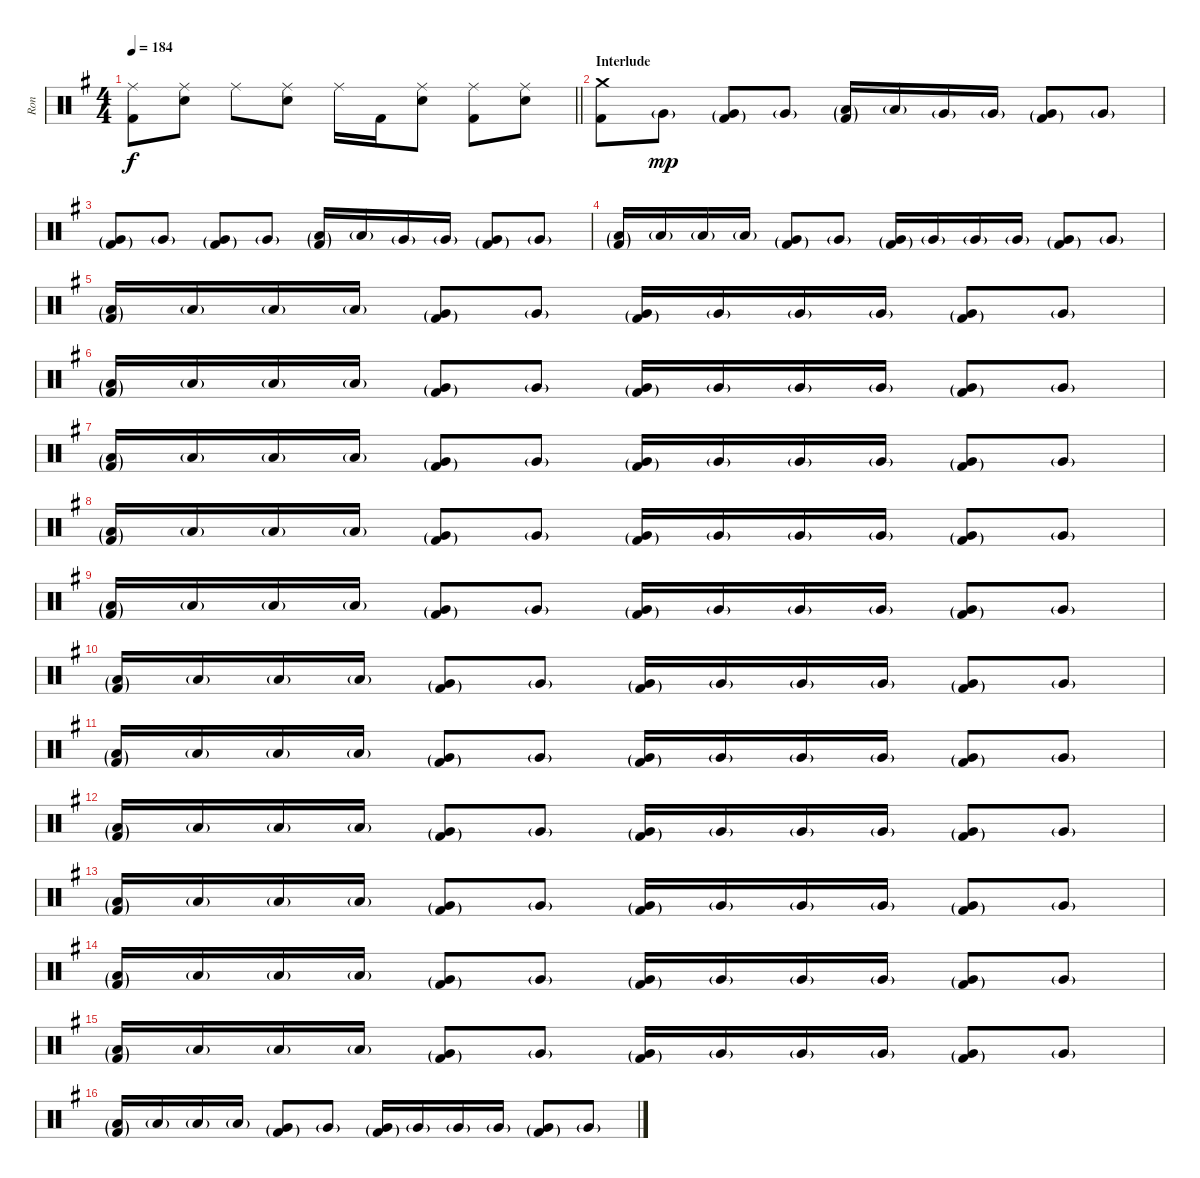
\track ("Ron" "Ron") {instrument percussion}
\staff {score}
\articulation defaults
\ts (4 4)
\tempo 184
\clef neutral
\barLineRight lightlight
\ks eminor
("Ride (middle)" "Kick (hit) 2").8{dy f} ("Ride (middle)" "Electric Snare (hit)").8 "Ride (middle)".8 ("Ride (middle)" "Electric Snare (hit)").8 "Ride (middle)".16 "Kick (hit) 2".16 ("Ride (middle)" "Electric Snare (hit)").8 ("Ride (middle)" "Kick (hit) 2").8 ("Ride (middle)" "Electric Snare (hit)").8 |
\section ("" "Interlude")
("Crash medium (hit)" "Kick (hit) 2").8 "Very Low Tom (hit)"{g}.8{dy mp} ("Very Low Tom (hit)"{g} "Kick (hit) 2"{g}).8 "Very Low Tom (hit)"{g}.8 ("Low Tom (hit)"{g} "Kick (hit) 2"{g}).16 "Low Tom (hit)"{g}.16 "Very Low Tom (hit)"{g}.16 "Very Low Tom (hit)"{g}.16 ("Very Low Tom (hit)"{g} "Kick (hit) 2"{g}).8 "Very Low Tom (hit)"{g}.8 |
("Very Low Tom (hit)"{g} "Kick (hit) 2"{g}).8 "Very Low Tom (hit)"{g}.8 ("Very Low Tom (hit)"{g} "Kick (hit) 2"{g}).8 "Very Low Tom (hit)"{g}.8 ("Low Tom (hit)"{g} "Kick (hit) 2"{g}).16 "Low Tom (hit)"{g}.16 "Very Low Tom (hit)"{g}.16 "Very Low Tom (hit)"{g}.16 ("Very Low Tom (hit)"{g} "Kick (hit) 2"{g}).8 "Very Low Tom (hit)"{g}.8 |
("Low Tom (hit)"{g} "Kick (hit) 2"{g}).16 "Low Tom (hit)"{g}.16 "Low Tom (hit)"{g}.16 "Low Tom (hit)"{g}.16 ("Very Low Tom (hit)"{g} "Kick (hit) 2"{g}).8 "Very Low Tom (hit)"{g}.8 ("Very Low Tom (hit)"{g} "Kick (hit) 2"{g}).16 "Very Low Tom (hit)"{g}.16 "Very Low Tom (hit)"{g}.16 "Very Low Tom (hit)"{g}.16 ("Very Low Tom (hit)"{g} "Kick (hit) 2"{g}).8 "Very Low Tom (hit)"{g}.8 |
("Low Tom (hit)"{g} "Kick (hit) 2"{g}).16 "Low Tom (hit)"{g}.16 "Low Tom (hit)"{g}.16 "Low Tom (hit)"{g}.16 ("Very Low Tom (hit)"{g} "Kick (hit) 2"{g}).8 "Very Low Tom (hit)"{g}.8 ("Very Low Tom (hit)"{g} "Kick (hit) 2"{g}).16 "Very Low Tom (hit)"{g}.16 "Very Low Tom (hit)"{g}.16 "Very Low Tom (hit)"{g}.16 ("Very Low Tom (hit)"{g} "Kick (hit) 2"{g}).8 "Very Low Tom (hit)"{g}.8 |
("Low Tom (hit)"{g} "Kick (hit) 2"{g}).16 "Low Tom (hit)"{g}.16 "Low Tom (hit)"{g}.16 "Low Tom (hit)"{g}.16 ("Very Low Tom (hit)"{g} "Kick (hit) 2"{g}).8 "Very Low Tom (hit)"{g}.8 ("Very Low Tom (hit)"{g} "Kick (hit) 2"{g}).16 "Very Low Tom (hit)"{g}.16 "Very Low Tom (hit)"{g}.16 "Very Low Tom (hit)"{g}.16 ("Very Low Tom (hit)"{g} "Kick (hit) 2"{g}).8 "Very Low Tom (hit)"{g}.8 |
("Low Tom (hit)"{g} "Kick (hit) 2"{g}).16 "Low Tom (hit)"{g}.16 "Low Tom (hit)"{g}.16 "Low Tom (hit)"{g}.16 ("Very Low Tom (hit)"{g} "Kick (hit) 2"{g}).8 "Very Low Tom (hit)"{g}.8 ("Very Low Tom (hit)"{g} "Kick (hit) 2"{g}).16 "Very Low Tom (hit)"{g}.16 "Very Low Tom (hit)"{g}.16 "Very Low Tom (hit)"{g}.16 ("Very Low Tom (hit)"{g} "Kick (hit) 2"{g}).8 "Very Low Tom (hit)"{g}.8 |
("Low Tom (hit)"{g} "Kick (hit) 2"{g}).16 "Low Tom (hit)"{g}.16 "Low Tom (hit)"{g}.16 "Low Tom (hit)"{g}.16 ("Very Low Tom (hit)"{g} "Kick (hit) 2"{g}).8 "Very Low Tom (hit)"{g}.8 ("Very Low Tom (hit)"{g} "Kick (hit) 2"{g}).16 "Very Low Tom (hit)"{g}.16 "Very Low Tom (hit)"{g}.16 "Very Low Tom (hit)"{g}.16 ("Very Low Tom (hit)"{g} "Kick (hit) 2"{g}).8 "Very Low Tom (hit)"{g}.8 |
("Low Tom (hit)"{g} "Kick (hit) 2"{g}).16 "Low Tom (hit)"{g}.16 "Low Tom (hit)"{g}.16 "Low Tom (hit)"{g}.16 ("Very Low Tom (hit)"{g} "Kick (hit) 2"{g}).8 "Very Low Tom (hit)"{g}.8 ("Very Low Tom (hit)"{g} "Kick (hit) 2"{g}).16 "Very Low Tom (hit)"{g}.16 "Very Low Tom (hit)"{g}.16 "Very Low Tom (hit)"{g}.16 ("Very Low Tom (hit)"{g} "Kick (hit) 2"{g}).8 "Very Low Tom (hit)"{g}.8 |
("Low Tom (hit)"{g} "Kick (hit) 2"{g}).16 "Low Tom (hit)"{g}.16 "Low Tom (hit)"{g}.16 "Low Tom (hit)"{g}.16 ("Very Low Tom (hit)"{g} "Kick (hit) 2"{g}).8 "Very Low Tom (hit)"{g}.8 ("Very Low Tom (hit)"{g} "Kick (hit) 2"{g}).16 "Very Low Tom (hit)"{g}.16 "Very Low Tom (hit)"{g}.16 "Very Low Tom (hit)"{g}.16 ("Very Low Tom (hit)"{g} "Kick (hit) 2"{g}).8 "Very Low Tom (hit)"{g}.8 |
("Low Tom (hit)"{g} "Kick (hit) 2"{g}).16 "Low Tom (hit)"{g}.16 "Low Tom (hit)"{g}.16 "Low Tom (hit)"{g}.16 ("Very Low Tom (hit)"{g} "Kick (hit) 2"{g}).8 "Very Low Tom (hit)"{g}.8 ("Very Low Tom (hit)"{g} "Kick (hit) 2"{g}).16 "Very Low Tom (hit)"{g}.16 "Very Low Tom (hit)"{g}.16 "Very Low Tom (hit)"{g}.16 ("Very Low Tom (hit)"{g} "Kick (hit) 2"{g}).8 "Very Low Tom (hit)"{g}.8 |
("Low Tom (hit)"{g} "Kick (hit) 2"{g}).16 "Low Tom (hit)"{g}.16 "Low Tom (hit)"{g}.16 "Low Tom (hit)"{g}.16 ("Very Low Tom (hit)"{g} "Kick (hit) 2"{g}).8 "Very Low Tom (hit)"{g}.8 ("Very Low Tom (hit)"{g} "Kick (hit) 2"{g}).16 "Very Low Tom (hit)"{g}.16 "Very Low Tom (hit)"{g}.16 "Very Low Tom (hit)"{g}.16 ("Very Low Tom (hit)"{g} "Kick (hit) 2"{g}).8 "Very Low Tom (hit)"{g}.8 |
("Low Tom (hit)"{g} "Kick (hit) 2"{g}).16 "Low Tom (hit)"{g}.16 "Low Tom (hit)"{g}.16 "Low Tom (hit)"{g}.16 ("Very Low Tom (hit)"{g} "Kick (hit) 2"{g}).8 "Very Low Tom (hit)"{g}.8 ("Very Low Tom (hit)"{g} "Kick (hit) 2"{g}).16 "Very Low Tom (hit)"{g}.16 "Very Low Tom (hit)"{g}.16 "Very Low Tom (hit)"{g}.16 ("Very Low Tom (hit)"{g} "Kick (hit) 2"{g}).8 "Very Low Tom (hit)"{g}.8 |
("Low Tom (hit)"{g} "Kick (hit) 2"{g}).16 "Low Tom (hit)"{g}.16 "Low Tom (hit)"{g}.16 "Low Tom (hit)"{g}.16 ("Very Low Tom (hit)"{g} "Kick (hit) 2"{g}).8 "Very Low Tom (hit)"{g}.8 ("Very Low Tom (hit)"{g} "Kick (hit) 2"{g}).16 "Very Low Tom (hit)"{g}.16 "Very Low Tom (hit)"{g}.16 "Very Low Tom (hit)"{g}.16 ("Very Low Tom (hit)"{g} "Kick (hit) 2"{g}).8 "Very Low Tom (hit)"{g}.8 |
("Low Tom (hit)"{g} "Kick (hit) 2"{g}).16 "Low Tom (hit)"{g}.16 "Low Tom (hit)"{g}.16 "Low Tom (hit)"{g}.16 ("Very Low Tom (hit)"{g} "Kick (hit) 2"{g}).8 "Very Low Tom (hit)"{g}.8 ("Very Low Tom (hit)"{g} "Kick (hit) 2"{g}).16 "Very Low Tom (hit)"{g}.16 "Very Low Tom (hit)"{g}.16 "Very Low Tom (hit)"{g}.16 ("Very Low Tom (hit)"{g} "Kick (hit) 2"{g}).8 "Very Low Tom (hit)"{g}.8 |
("Low Tom (hit)"{g} "Kick (hit) 2"{g}).16 "Low Tom (hit)"{g}.16 "Low Tom (hit)"{g}.16 "Low Tom (hit)"{g}.16 ("Very Low Tom (hit)"{g} "Kick (hit) 2"{g}).8 "Very Low Tom (hit)"{g}.8 ("Very Low Tom (hit)"{g} "Kick (hit) 2"{g}).16 "Very Low Tom (hit)"{g}.16 "Very Low Tom (hit)"{g}.16 "Very Low Tom (hit)"{g}.16 ("Very Low Tom (hit)"{g} "Kick (hit) 2"{g}).8 "Very Low Tom (hit)"{g}.8
